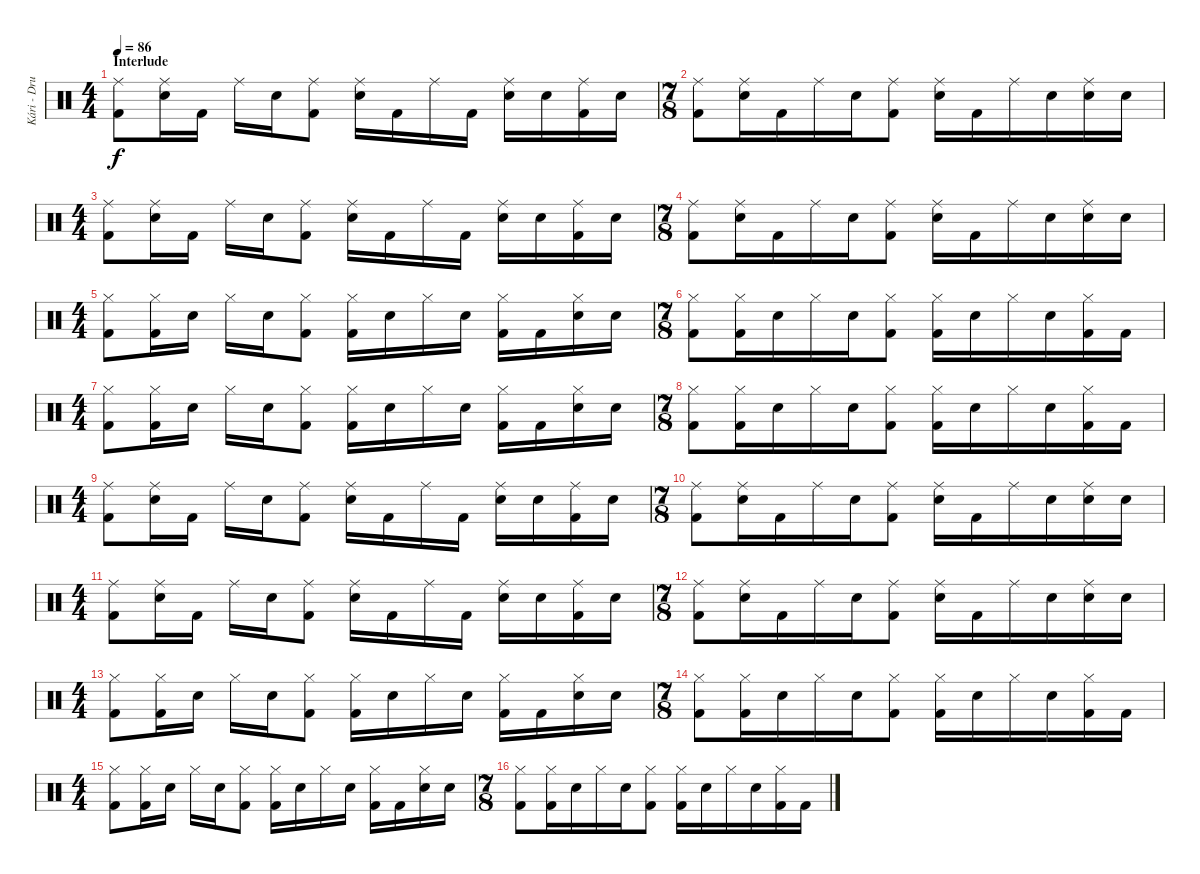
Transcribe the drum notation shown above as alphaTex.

\track ("Kári - Drums" "Kári - Dru") {instrument percussion}
\staff {score}
\articulation defaults
\ts (4 4)
\section ("" "Interlude")
\tempo 86
\clef neutral
\ks c
("Ride (middle)" "Kick (hit) 2").8{dy f} ("Ride (middle)" "Electric Snare (hit)").16 "Kick (hit) 2".16 "Ride (middle)".16 "Electric Snare (hit)".16 ("Ride (middle)" "Kick (hit) 2").8 ("Ride (middle)" "Electric Snare (hit)").16 "Kick (hit) 2".16 "Ride (middle)".16 "Kick (hit) 2".16 ("Ride (middle)" "Electric Snare (hit)").16 "Electric Snare (hit)".16 ("Ride (middle)" "Kick (hit) 2").16 "Electric Snare (hit)".16 |
\ts (7 8)
("Ride (middle)" "Kick (hit) 2").8{beam merge} ("Ride (middle)" "Electric Snare (hit)").16 "Kick (hit) 2".16 "Ride (middle)".16 "Electric Snare (hit)".16{beam merge} ("Ride (middle)" "Kick (hit) 2").8 ("Ride (middle)" "Electric Snare (hit)").16 "Kick (hit) 2".16{beam merge} "Ride (middle)".16 "Electric Snare (hit)".16{beam merge} ("Ride (middle)" "Electric Snare (hit)").16 "Electric Snare (hit)".16 |
\ts (4 4)
("Ride (middle)" "Kick (hit) 2").8 ("Ride (middle)" "Electric Snare (hit)").16 "Kick (hit) 2".16 "Ride (middle)".16 "Electric Snare (hit)".16 ("Ride (middle)" "Kick (hit) 2").8 ("Ride (middle)" "Electric Snare (hit)").16 "Kick (hit) 2".16 "Ride (middle)".16 "Kick (hit) 2".16 ("Ride (middle)" "Electric Snare (hit)").16 "Electric Snare (hit)".16 ("Ride (middle)" "Kick (hit) 2").16 "Electric Snare (hit)".16 |
\ts (7 8)
("Ride (middle)" "Kick (hit) 2").8{beam merge} ("Ride (middle)" "Electric Snare (hit)").16 "Kick (hit) 2".16 "Ride (middle)".16 "Electric Snare (hit)".16{beam merge} ("Ride (middle)" "Kick (hit) 2").8 ("Ride (middle)" "Electric Snare (hit)").16 "Kick (hit) 2".16{beam merge} "Ride (middle)".16 "Electric Snare (hit)".16{beam merge} ("Ride (middle)" "Electric Snare (hit)").16 "Electric Snare (hit)".16 |
\ts (4 4)
("Hi-Hat (closed)" "Kick (hit) 2").8 ("Hi-Hat (closed)" "Kick (hit) 2").16 "Electric Snare (hit)".16 "Hi-Hat (closed)".16 "Electric Snare (hit)".16 ("Hi-Hat (closed)" "Kick (hit) 2").8 ("Hi-Hat (closed)" "Kick (hit) 2").16 "Electric Snare (hit)".16 "Hi-Hat (closed)".16 "Electric Snare (hit)".16 ("Hi-Hat (closed)" "Kick (hit) 2").16 "Kick (hit) 2".16 ("Hi-Hat (closed)" "Electric Snare (hit)").16 "Electric Snare (hit)".16 |
\ts (7 8)
("Hi-Hat (closed)" "Kick (hit) 2").8{beam merge} ("Hi-Hat (closed)" "Kick (hit) 2").16 "Electric Snare (hit)".16 "Hi-Hat (closed)".16 "Electric Snare (hit)".16{beam merge} ("Hi-Hat (closed)" "Kick (hit) 2").8 ("Hi-Hat (closed)" "Kick (hit) 2").16 "Electric Snare (hit)".16{beam merge} "Hi-Hat (closed)".16 "Electric Snare (hit)".16{beam merge} ("Hi-Hat (closed)" "Kick (hit) 2").16 "Kick (hit) 2".16 |
\ts (4 4)
("Hi-Hat (closed)" "Kick (hit) 2").8 ("Hi-Hat (closed)" "Kick (hit) 2").16 "Electric Snare (hit)".16 "Hi-Hat (closed)".16 "Electric Snare (hit)".16 ("Hi-Hat (closed)" "Kick (hit) 2").8 ("Hi-Hat (closed)" "Kick (hit) 2").16 "Electric Snare (hit)".16 "Hi-Hat (closed)".16 "Electric Snare (hit)".16 ("Hi-Hat (closed)" "Kick (hit) 2").16 "Kick (hit) 2".16 ("Hi-Hat (closed)" "Electric Snare (hit)").16 "Electric Snare (hit)".16 |
\ts (7 8)
("Hi-Hat (closed)" "Kick (hit) 2").8{beam merge} ("Hi-Hat (closed)" "Kick (hit) 2").16 "Electric Snare (hit)".16 "Hi-Hat (closed)".16 "Electric Snare (hit)".16{beam merge} ("Hi-Hat (closed)" "Kick (hit) 2").8 ("Hi-Hat (closed)" "Kick (hit) 2").16 "Electric Snare (hit)".16{beam merge} "Hi-Hat (closed)".16 "Electric Snare (hit)".16{beam merge} ("Hi-Hat (closed)" "Kick (hit) 2").16 "Kick (hit) 2".16 |
\ts (4 4)
("Ride (middle)" "Kick (hit) 2").8 ("Ride (middle)" "Electric Snare (hit)").16 "Kick (hit) 2".16 "Ride (middle)".16 "Electric Snare (hit)".16 ("Ride (middle)" "Kick (hit) 2").8 ("Ride (middle)" "Electric Snare (hit)").16 "Kick (hit) 2".16 "Ride (middle)".16 "Kick (hit) 2".16 ("Ride (middle)" "Electric Snare (hit)").16 "Electric Snare (hit)".16 ("Ride (middle)" "Kick (hit) 2").16 "Electric Snare (hit)".16 |
\ts (7 8)
("Ride (middle)" "Kick (hit) 2").8{beam merge} ("Ride (middle)" "Electric Snare (hit)").16 "Kick (hit) 2".16 "Ride (middle)".16 "Electric Snare (hit)".16{beam merge} ("Ride (middle)" "Kick (hit) 2").8 ("Ride (middle)" "Electric Snare (hit)").16 "Kick (hit) 2".16{beam merge} "Ride (middle)".16 "Electric Snare (hit)".16{beam merge} ("Ride (middle)" "Electric Snare (hit)").16 "Electric Snare (hit)".16 |
\ts (4 4)
("Ride (middle)" "Kick (hit) 2").8 ("Ride (middle)" "Electric Snare (hit)").16 "Kick (hit) 2".16 "Ride (middle)".16 "Electric Snare (hit)".16 ("Ride (middle)" "Kick (hit) 2").8 ("Ride (middle)" "Electric Snare (hit)").16 "Kick (hit) 2".16 "Ride (middle)".16 "Kick (hit) 2".16 ("Ride (middle)" "Electric Snare (hit)").16 "Electric Snare (hit)".16 ("Ride (middle)" "Kick (hit) 2").16 "Electric Snare (hit)".16 |
\ts (7 8)
("Ride (middle)" "Kick (hit) 2").8{beam merge} ("Ride (middle)" "Electric Snare (hit)").16 "Kick (hit) 2".16 "Ride (middle)".16 "Electric Snare (hit)".16{beam merge} ("Ride (middle)" "Kick (hit) 2").8 ("Ride (middle)" "Electric Snare (hit)").16 "Kick (hit) 2".16{beam merge} "Ride (middle)".16 "Electric Snare (hit)".16{beam merge} ("Ride (middle)" "Electric Snare (hit)").16 "Electric Snare (hit)".16 |
\ts (4 4)
("Hi-Hat (closed)" "Kick (hit) 2").8 ("Hi-Hat (closed)" "Kick (hit) 2").16 "Electric Snare (hit)".16 "Hi-Hat (closed)".16 "Electric Snare (hit)".16 ("Hi-Hat (closed)" "Kick (hit) 2").8 ("Hi-Hat (closed)" "Kick (hit) 2").16 "Electric Snare (hit)".16 "Hi-Hat (closed)".16 "Electric Snare (hit)".16 ("Hi-Hat (closed)" "Kick (hit) 2").16 "Kick (hit) 2".16 ("Hi-Hat (closed)" "Electric Snare (hit)").16 "Electric Snare (hit)".16 |
\ts (7 8)
("Hi-Hat (closed)" "Kick (hit) 2").8{beam merge} ("Hi-Hat (closed)" "Kick (hit) 2").16 "Electric Snare (hit)".16 "Hi-Hat (closed)".16 "Electric Snare (hit)".16{beam merge} ("Hi-Hat (closed)" "Kick (hit) 2").8 ("Hi-Hat (closed)" "Kick (hit) 2").16 "Electric Snare (hit)".16{beam merge} "Hi-Hat (closed)".16 "Electric Snare (hit)".16{beam merge} ("Hi-Hat (closed)" "Kick (hit) 2").16 "Kick (hit) 2".16 |
\ts (4 4)
("Hi-Hat (closed)" "Kick (hit) 2").8 ("Hi-Hat (closed)" "Kick (hit) 2").16 "Electric Snare (hit)".16 "Hi-Hat (closed)".16 "Electric Snare (hit)".16 ("Hi-Hat (closed)" "Kick (hit) 2").8 ("Hi-Hat (closed)" "Kick (hit) 2").16 "Electric Snare (hit)".16 "Hi-Hat (closed)".16 "Electric Snare (hit)".16 ("Hi-Hat (closed)" "Kick (hit) 2").16 "Kick (hit) 2".16 ("Hi-Hat (closed)" "Electric Snare (hit)").16 "Electric Snare (hit)".16 |
\ts (7 8)
("Hi-Hat (closed)" "Kick (hit) 2").8{beam merge} ("Hi-Hat (closed)" "Kick (hit) 2").16 "Electric Snare (hit)".16 "Hi-Hat (closed)".16 "Electric Snare (hit)".16{beam merge} ("Hi-Hat (closed)" "Kick (hit) 2").8 ("Hi-Hat (closed)" "Kick (hit) 2").16 "Electric Snare (hit)".16{beam merge} "Hi-Hat (closed)".16 "Electric Snare (hit)".16{beam merge} ("Hi-Hat (closed)" "Kick (hit) 2").16 "Kick (hit) 2".16
